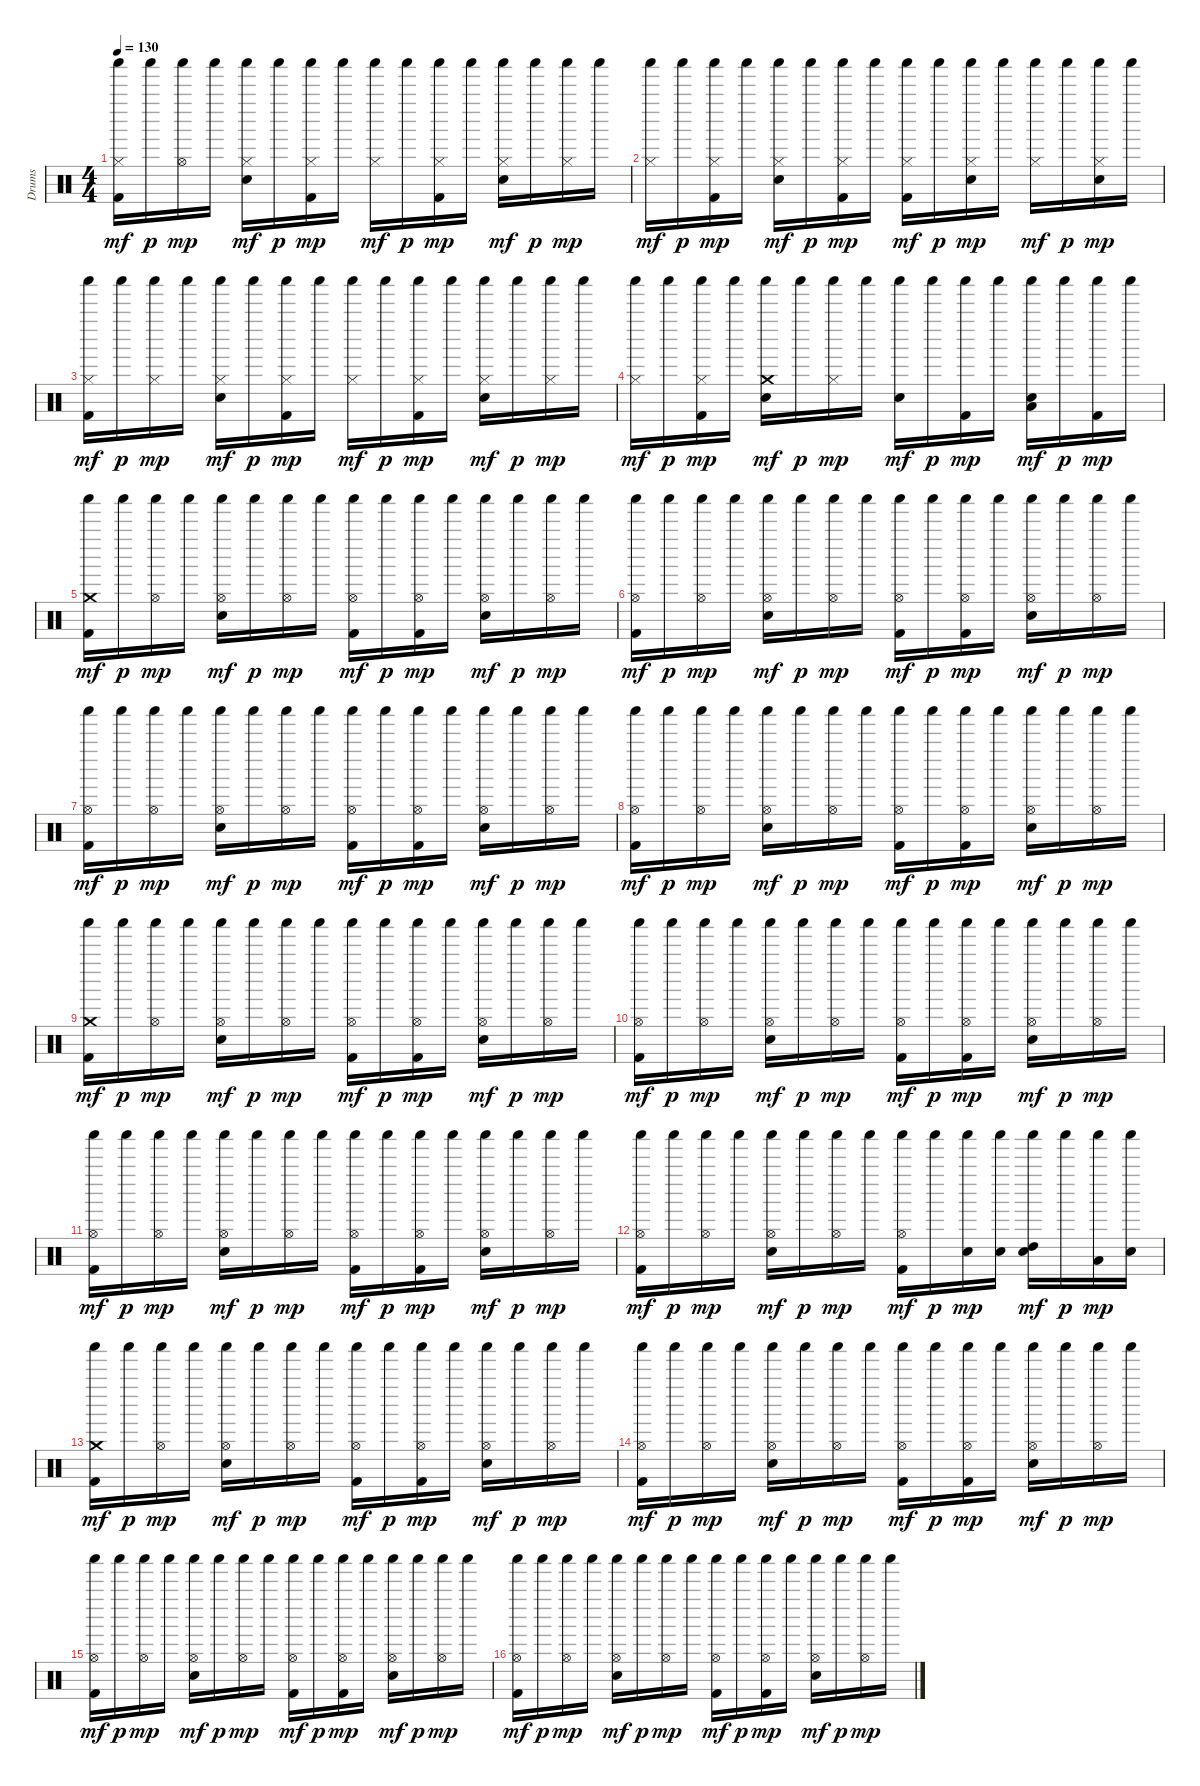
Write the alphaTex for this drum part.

\track ("Drums" "Drums") {instrument percussion}
\staff {score}
\articulation defaults
\ts (4 4)
\tempo 130
\clef neutral
\ks c
("Kick (hit) 2" "Hi-Hat (closed)" "Shaker (hit)").16{dy mf} "Shaker (hit)".16{dy p} ("Hi-Hat (open)" "Shaker (hit)").16{dy mp} "Shaker (hit)".16 ("Snare (hit) 2" "Hi-Hat (closed)" "Shaker (hit)").16{dy mf} "Shaker (hit)".16{dy p} ("Kick (hit) 2" "Hi-Hat (closed)" "Shaker (hit)").16{dy mp} "Shaker (hit)".16 ("Hi-Hat (closed)" "Shaker (hit)").16{dy mf} "Shaker (hit)".16{dy p} ("Kick (hit) 2" "Hi-Hat (closed)" "Shaker (hit)").16{dy mp} "Shaker (hit)".16 ("Snare (hit) 2" "Hi-Hat (closed)" "Shaker (hit)").16{dy mf} "Shaker (hit)".16{dy p} ("Hi-Hat (closed)" "Shaker (hit)").16{dy mp} "Shaker (hit)".16 |
("Hi-Hat (closed)" "Shaker (hit)").16{dy mf} "Shaker (hit)".16{dy p} ("Kick (hit) 2" "Hi-Hat (closed)" "Shaker (hit)").16{dy mp} "Shaker (hit)".16 ("Snare (hit) 2" "Hi-Hat (closed)" "Shaker (hit)").16{dy mf} "Shaker (hit)".16{dy p} ("Kick (hit) 2" "Hi-Hat (closed)" "Shaker (hit)").16{dy mp} "Shaker (hit)".16 ("Kick (hit) 2" "Hi-Hat (closed)" "Shaker (hit)").16{dy mf} "Shaker (hit)".16{dy p} ("Snare (hit) 2" "Hi-Hat (closed)" "Shaker (hit)").16{dy mp} "Shaker (hit)".16 ("Hi-Hat (closed)" "Shaker (hit)").16{dy mf} "Shaker (hit)".16{dy p} ("Snare (hit) 2" "Hi-Hat (closed)" "Shaker (hit)").16{dy mp} "Shaker (hit)".16 |
("Kick (hit) 2" "Hi-Hat (closed)" "Shaker (hit)").16{dy mf} "Shaker (hit)".16{dy p} ("Hi-Hat (closed)" "Shaker (hit)").16{dy mp} "Shaker (hit)".16 ("Snare (hit) 2" "Hi-Hat (closed)" "Shaker (hit)").16{dy mf} "Shaker (hit)".16{dy p} ("Kick (hit) 2" "Hi-Hat (closed)" "Shaker (hit)").16{dy mp} "Shaker (hit)".16 ("Hi-Hat (closed)" "Shaker (hit)").16{dy mf} "Shaker (hit)".16{dy p} ("Kick (hit) 2" "Hi-Hat (closed)" "Shaker (hit)").16{dy mp} "Shaker (hit)".16 ("Snare (hit) 2" "Hi-Hat (closed)" "Shaker (hit)").16{dy mf} "Shaker (hit)".16{dy p} ("Hi-Hat (closed)" "Shaker (hit)").16{dy mp} "Shaker (hit)".16 |
("Hi-Hat (closed)" "Shaker (hit)").16{dy mf} "Shaker (hit)".16{dy p} ("Kick (hit) 2" "Hi-Hat (closed)" "Shaker (hit)").16{dy mp} "Shaker (hit)".16 ("Snare (hit) 2" "Crash medium (hit)" "Shaker (hit)").16{dy mf} "Shaker (hit)".16{dy p} ("Hi-Hat (closed)" "Shaker (hit)").16{dy mp} "Shaker (hit)".16 ("Snare (hit) 2" "Shaker (hit)").16{dy mf} "Shaker (hit)".16{dy p} ("Kick (hit) 2" "Shaker (hit)").16{dy mp} "Shaker (hit)".16 ("Snare (hit) 2" "Low Tom (hit)" "Shaker (hit)").16{dy mf} "Shaker (hit)".16{dy p} ("Kick (hit) 2" "Shaker (hit)").16{dy mp} "Shaker (hit)".16 |
("Kick (hit) 2" "Crash medium (hit)" "Shaker (hit)").16{dy mf} "Shaker (hit)".16{dy p} ("Hi-Hat (open)" "Shaker (hit)").16{dy mp} "Shaker (hit)".16 ("Snare (hit) 2" "Hi-Hat (open)" "Shaker (hit)").16{dy mf} "Shaker (hit)".16{dy p} ("Hi-Hat (open)" "Shaker (hit)").16{dy mp} "Shaker (hit)".16 ("Kick (hit) 2" "Hi-Hat (open)" "Shaker (hit)").16{dy mf} "Shaker (hit)".16{dy p} ("Kick (hit) 2" "Hi-Hat (open)" "Shaker (hit)").16{dy mp} "Shaker (hit)".16 ("Snare (hit) 2" "Hi-Hat (open)" "Shaker (hit)").16{dy mf} "Shaker (hit)".16{dy p} ("Hi-Hat (open)" "Shaker (hit)").16{dy mp} "Shaker (hit)".16 |
("Kick (hit) 2" "Hi-Hat (open)" "Shaker (hit)").16{dy mf} "Shaker (hit)".16{dy p} ("Hi-Hat (open)" "Shaker (hit)").16{dy mp} "Shaker (hit)".16 ("Snare (hit) 2" "Hi-Hat (open)" "Shaker (hit)").16{dy mf} "Shaker (hit)".16{dy p} ("Hi-Hat (open)" "Shaker (hit)").16{dy mp} "Shaker (hit)".16 ("Kick (hit) 2" "Hi-Hat (open)" "Shaker (hit)").16{dy mf} "Shaker (hit)".16{dy p} ("Kick (hit) 2" "Hi-Hat (open)" "Shaker (hit)").16{dy mp} "Shaker (hit)".16 ("Snare (hit) 2" "Hi-Hat (open)" "Shaker (hit)").16{dy mf} "Shaker (hit)".16{dy p} ("Hi-Hat (open)" "Shaker (hit)").16{dy mp} "Shaker (hit)".16 |
("Kick (hit) 2" "Hi-Hat (open)" "Shaker (hit)").16{dy mf} "Shaker (hit)".16{dy p} ("Hi-Hat (open)" "Shaker (hit)").16{dy mp} "Shaker (hit)".16 ("Snare (hit) 2" "Hi-Hat (open)" "Shaker (hit)").16{dy mf} "Shaker (hit)".16{dy p} ("Hi-Hat (open)" "Shaker (hit)").16{dy mp} "Shaker (hit)".16 ("Kick (hit) 2" "Hi-Hat (open)" "Shaker (hit)").16{dy mf} "Shaker (hit)".16{dy p} ("Kick (hit) 2" "Hi-Hat (open)" "Shaker (hit)").16{dy mp} "Shaker (hit)".16 ("Snare (hit) 2" "Hi-Hat (open)" "Shaker (hit)").16{dy mf} "Shaker (hit)".16{dy p} ("Hi-Hat (open)" "Shaker (hit)").16{dy mp} "Shaker (hit)".16 |
("Kick (hit) 2" "Hi-Hat (open)" "Shaker (hit)").16{dy mf} "Shaker (hit)".16{dy p} ("Hi-Hat (open)" "Shaker (hit)").16{dy mp} "Shaker (hit)".16 ("Snare (hit) 2" "Hi-Hat (open)" "Shaker (hit)").16{dy mf} "Shaker (hit)".16{dy p} ("Hi-Hat (open)" "Shaker (hit)").16{dy mp} "Shaker (hit)".16 ("Kick (hit) 2" "Hi-Hat (open)" "Shaker (hit)").16{dy mf} "Shaker (hit)".16{dy p} ("Kick (hit) 2" "Hi-Hat (open)" "Shaker (hit)").16{dy mp} "Shaker (hit)".16 ("Snare (hit) 2" "Hi-Hat (open)" "Shaker (hit)").16{dy mf} "Shaker (hit)".16{dy p} ("Hi-Hat (open)" "Shaker (hit)").16{dy mp} "Shaker (hit)".16 |
("Kick (hit) 2" "Crash medium (hit)" "Shaker (hit)").16{dy mf} "Shaker (hit)".16{dy p} ("Hi-Hat (open)" "Shaker (hit)").16{dy mp} "Shaker (hit)".16 ("Snare (hit) 2" "Hi-Hat (open)" "Shaker (hit)").16{dy mf} "Shaker (hit)".16{dy p} ("Hi-Hat (open)" "Shaker (hit)").16{dy mp} "Shaker (hit)".16 ("Kick (hit) 2" "Hi-Hat (open)" "Shaker (hit)").16{dy mf} "Shaker (hit)".16{dy p} ("Kick (hit) 2" "Hi-Hat (open)" "Shaker (hit)").16{dy mp} "Shaker (hit)".16 ("Snare (hit) 2" "Hi-Hat (open)" "Shaker (hit)").16{dy mf} "Shaker (hit)".16{dy p} ("Hi-Hat (open)" "Shaker (hit)").16{dy mp} "Shaker (hit)".16 |
("Kick (hit) 2" "Hi-Hat (open)" "Shaker (hit)").16{dy mf} "Shaker (hit)".16{dy p} ("Hi-Hat (open)" "Shaker (hit)").16{dy mp} "Shaker (hit)".16 ("Snare (hit) 2" "Hi-Hat (open)" "Shaker (hit)").16{dy mf} "Shaker (hit)".16{dy p} ("Hi-Hat (open)" "Shaker (hit)").16{dy mp} "Shaker (hit)".16 ("Kick (hit) 2" "Hi-Hat (open)" "Shaker (hit)").16{dy mf} "Shaker (hit)".16{dy p} ("Kick (hit) 2" "Hi-Hat (open)" "Shaker (hit)").16{dy mp} "Shaker (hit)".16 ("Snare (hit) 2" "Hi-Hat (open)" "Shaker (hit)").16{dy mf} "Shaker (hit)".16{dy p} ("Hi-Hat (open)" "Shaker (hit)").16{dy mp} "Shaker (hit)".16 |
("Kick (hit) 2" "Hi-Hat (open)" "Shaker (hit)").16{dy mf} "Shaker (hit)".16{dy p} ("Hi-Hat (open)" "Shaker (hit)").16{dy mp} "Shaker (hit)".16 ("Snare (hit) 2" "Hi-Hat (open)" "Shaker (hit)").16{dy mf} "Shaker (hit)".16{dy p} ("Hi-Hat (open)" "Shaker (hit)").16{dy mp} "Shaker (hit)".16 ("Kick (hit) 2" "Hi-Hat (open)" "Shaker (hit)").16{dy mf} "Shaker (hit)".16{dy p} ("Kick (hit) 2" "Hi-Hat (open)" "Shaker (hit)").16{dy mp} "Shaker (hit)".16 ("Snare (hit) 2" "Hi-Hat (open)" "Shaker (hit)").16{dy mf} "Shaker (hit)".16{dy p} ("Hi-Hat (open)" "Shaker (hit)").16{dy mp} "Shaker (hit)".16 |
("Kick (hit) 2" "Hi-Hat (open)" "Shaker (hit)").16{dy mf} "Shaker (hit)".16{dy p} ("Hi-Hat (open)" "Shaker (hit)").16{dy mp} "Shaker (hit)".16 ("Snare (hit) 2" "Hi-Hat (open)" "Shaker (hit)").16{dy mf} "Shaker (hit)".16{dy p} ("Hi-Hat (open)" "Shaker (hit)").16{dy mp} "Shaker (hit)".16 ("Kick (hit) 2" "Hi-Hat (open)" "Shaker (hit)").16{dy mf} "Shaker (hit)".16{dy p} ("Snare (hit) 2" "Shaker (hit)").16{dy mp} ("Snare (hit) 2" "Shaker (hit)").16 ("Snare (hit) 2" "High Tom (hit)" "Shaker (hit)").16{dy mf} "Shaker (hit)".16{dy p} ("Low Tom (hit)" "Shaker (hit)").16{dy mp} ("Snare (hit) 2" "Shaker (hit)").16 |
("Kick (hit) 2" "Crash medium (hit)" "Shaker (hit)").16{dy mf} "Shaker (hit)".16{dy p} ("Hi-Hat (open)" "Shaker (hit)").16{dy mp} "Shaker (hit)".16 ("Snare (hit) 2" "Hi-Hat (open)" "Shaker (hit)").16{dy mf} "Shaker (hit)".16{dy p} ("Hi-Hat (open)" "Shaker (hit)").16{dy mp} "Shaker (hit)".16 ("Kick (hit) 2" "Hi-Hat (open)" "Shaker (hit)").16{dy mf} "Shaker (hit)".16{dy p} ("Kick (hit) 2" "Hi-Hat (open)" "Shaker (hit)").16{dy mp} "Shaker (hit)".16 ("Snare (hit) 2" "Hi-Hat (open)" "Shaker (hit)").16{dy mf} "Shaker (hit)".16{dy p} ("Hi-Hat (open)" "Shaker (hit)").16{dy mp} "Shaker (hit)".16 |
("Kick (hit) 2" "Hi-Hat (open)" "Shaker (hit)").16{dy mf} "Shaker (hit)".16{dy p} ("Hi-Hat (open)" "Shaker (hit)").16{dy mp} "Shaker (hit)".16 ("Snare (hit) 2" "Hi-Hat (open)" "Shaker (hit)").16{dy mf} "Shaker (hit)".16{dy p} ("Hi-Hat (open)" "Shaker (hit)").16{dy mp} "Shaker (hit)".16 ("Kick (hit) 2" "Hi-Hat (open)" "Shaker (hit)").16{dy mf} "Shaker (hit)".16{dy p} ("Kick (hit) 2" "Hi-Hat (open)" "Shaker (hit)").16{dy mp} "Shaker (hit)".16 ("Snare (hit) 2" "Hi-Hat (open)" "Shaker (hit)").16{dy mf} "Shaker (hit)".16{dy p} ("Hi-Hat (open)" "Shaker (hit)").16{dy mp} "Shaker (hit)".16 |
("Kick (hit) 2" "Hi-Hat (open)" "Shaker (hit)").16{dy mf} "Shaker (hit)".16{dy p} ("Hi-Hat (open)" "Shaker (hit)").16{dy mp} "Shaker (hit)".16 ("Snare (hit) 2" "Hi-Hat (open)" "Shaker (hit)").16{dy mf} "Shaker (hit)".16{dy p} ("Hi-Hat (open)" "Shaker (hit)").16{dy mp} "Shaker (hit)".16 ("Kick (hit) 2" "Hi-Hat (open)" "Shaker (hit)").16{dy mf} "Shaker (hit)".16{dy p} ("Kick (hit) 2" "Hi-Hat (open)" "Shaker (hit)").16{dy mp} "Shaker (hit)".16 ("Snare (hit) 2" "Hi-Hat (open)" "Shaker (hit)").16{dy mf} "Shaker (hit)".16{dy p} ("Hi-Hat (open)" "Shaker (hit)").16{dy mp} "Shaker (hit)".16 |
("Kick (hit) 2" "Hi-Hat (open)" "Shaker (hit)").16{dy mf} "Shaker (hit)".16{dy p} ("Hi-Hat (open)" "Shaker (hit)").16{dy mp} "Shaker (hit)".16 ("Snare (hit) 2" "Hi-Hat (open)" "Shaker (hit)").16{dy mf} "Shaker (hit)".16{dy p} ("Hi-Hat (open)" "Shaker (hit)").16{dy mp} "Shaker (hit)".16 ("Kick (hit) 2" "Hi-Hat (open)" "Shaker (hit)").16{dy mf} "Shaker (hit)".16{dy p} ("Kick (hit) 2" "Hi-Hat (open)" "Shaker (hit)").16{dy mp} "Shaker (hit)".16 ("Snare (hit) 2" "Hi-Hat (open)" "Shaker (hit)").16{dy mf} "Shaker (hit)".16{dy p} ("Hi-Hat (open)" "Shaker (hit)").16{dy mp} "Shaker (hit)".16
